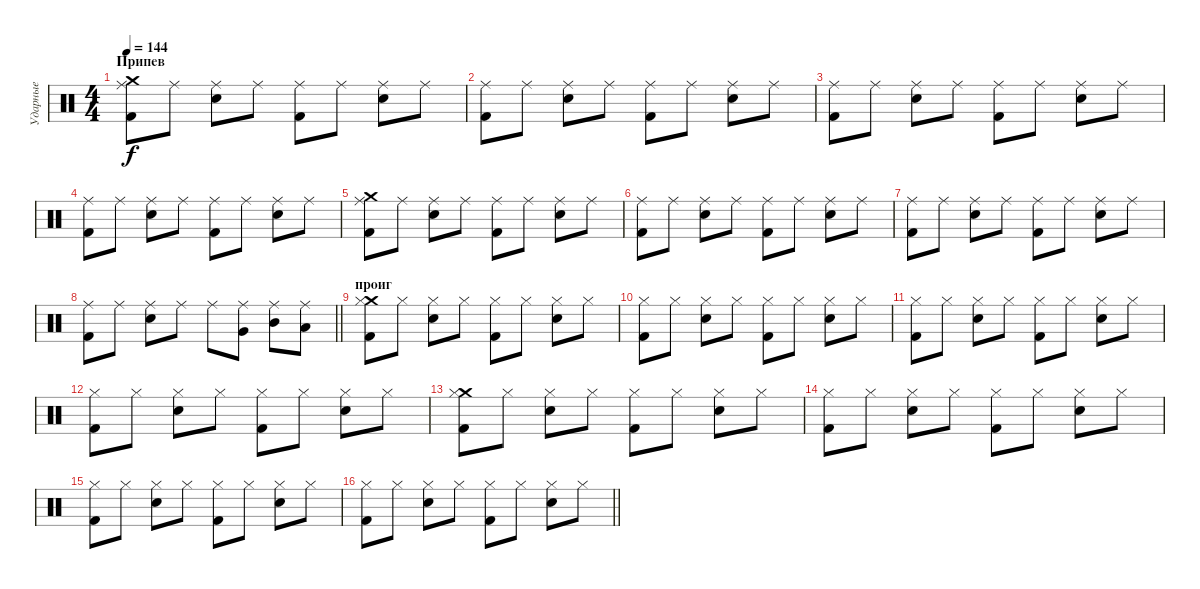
\track ("Ударные" "Ударные") {instrument percussion}
\staff {score}
\articulation defaults
\ts (4 4)
\section ("" "Припев")
\tempo 144
\clef neutral
\ks c
("Crash medium (hit)" "Ride (middle)" "Kick (hit) 2").8{dy f} "Ride (middle)".8 ("Ride (middle)" "Snare (hit) 2").8 "Ride (middle)".8 ("Ride (middle)" "Kick (hit) 2").8 "Ride (middle)".8 ("Ride (middle)" "Snare (hit) 2").8 "Ride (middle)".8 |
("Ride (middle)" "Kick (hit) 2").8 "Ride (middle)".8 ("Ride (middle)" "Snare (hit) 2").8 "Ride (middle)".8 ("Ride (middle)" "Kick (hit) 2").8 "Ride (middle)".8 ("Ride (middle)" "Snare (hit) 2").8 "Ride (middle)".8 |
("Ride (middle)" "Kick (hit) 2").8 "Ride (middle)".8 ("Ride (middle)" "Snare (hit) 2").8 "Ride (middle)".8 ("Ride (middle)" "Kick (hit) 2").8 "Ride (middle)".8 ("Ride (middle)" "Snare (hit) 2").8 "Ride (middle)".8 |
("Ride (middle)" "Kick (hit) 2").8 "Ride (middle)".8 ("Ride (middle)" "Snare (hit) 2").8 "Ride (middle)".8 ("Ride (middle)" "Kick (hit) 2").8 "Ride (middle)".8 ("Ride (middle)" "Snare (hit) 2").8 "Ride (middle)".8 |
("Crash medium (hit)" "Ride (middle)" "Kick (hit) 2").8 "Ride (middle)".8 ("Ride (middle)" "Snare (hit) 2").8 "Ride (middle)".8 ("Ride (middle)" "Kick (hit) 2").8 "Ride (middle)".8 ("Ride (middle)" "Snare (hit) 2").8 "Ride (middle)".8 |
("Ride (middle)" "Kick (hit) 2").8 "Ride (middle)".8 ("Ride (middle)" "Snare (hit) 2").8 "Ride (middle)".8 ("Ride (middle)" "Kick (hit) 2").8 "Ride (middle)".8 ("Ride (middle)" "Snare (hit) 2").8 "Ride (middle)".8 |
("Ride (middle)" "Kick (hit) 2").8 "Ride (middle)".8 ("Ride (middle)" "Snare (hit) 2").8 "Ride (middle)".8 ("Ride (middle)" "Kick (hit) 2").8 "Ride (middle)".8 ("Ride (middle)" "Snare (hit) 2").8 "Ride (middle)".8 |
\barLineRight lightlight
("Ride (middle)" "Kick (hit) 2").8 "Ride (middle)".8 ("Ride (middle)" "Snare (hit) 2").8 "Ride (middle)".8 "Ride (middle)".8 ("Very Low Tom (hit)" "Ride (middle)").8 ("Mid Tom (hit)" "Ride (middle)").8 ("Low Tom (hit)" "Ride (middle)").8 |
\section ("" "проиг")
("Crash medium (hit)" "Hi-Hat (closed)" "Kick (hit) 2").8 "Hi-Hat (closed)".8 ("Hi-Hat (closed)" "Snare (hit) 2").8 "Hi-Hat (closed)".8 ("Hi-Hat (closed)" "Kick (hit) 2").8 "Hi-Hat (closed)".8 ("Hi-Hat (closed)" "Snare (hit) 2").8 "Hi-Hat (closed)".8 |
("Hi-Hat (closed)" "Kick (hit) 2").8 "Hi-Hat (closed)".8 ("Hi-Hat (closed)" "Snare (hit) 2").8 "Hi-Hat (closed)".8 ("Hi-Hat (closed)" "Kick (hit) 2").8 "Hi-Hat (closed)".8 ("Hi-Hat (closed)" "Snare (hit) 2").8 "Hi-Hat (closed)".8 |
("Hi-Hat (closed)" "Kick (hit) 2").8 "Hi-Hat (closed)".8 ("Hi-Hat (closed)" "Snare (hit) 2").8 "Hi-Hat (closed)".8 ("Hi-Hat (closed)" "Kick (hit) 2").8 "Hi-Hat (closed)".8 ("Hi-Hat (closed)" "Snare (hit) 2").8 "Hi-Hat (closed)".8 |
("Hi-Hat (closed)" "Kick (hit) 2").8 "Hi-Hat (closed)".8 ("Hi-Hat (closed)" "Snare (hit) 2").8 "Hi-Hat (closed)".8 ("Hi-Hat (closed)" "Kick (hit) 2").8 "Hi-Hat (closed)".8 ("Hi-Hat (closed)" "Snare (hit) 2").8 "Hi-Hat (closed)".8 |
("Crash medium (hit)" "Hi-Hat (closed)" "Kick (hit) 2").8 "Hi-Hat (closed)".8 ("Hi-Hat (closed)" "Snare (hit) 2").8 "Hi-Hat (closed)".8 ("Hi-Hat (closed)" "Kick (hit) 2").8 "Hi-Hat (closed)".8 ("Hi-Hat (closed)" "Snare (hit) 2").8 "Hi-Hat (closed)".8 |
("Hi-Hat (closed)" "Kick (hit) 2").8 "Hi-Hat (closed)".8 ("Hi-Hat (closed)" "Snare (hit) 2").8 "Hi-Hat (closed)".8 ("Hi-Hat (closed)" "Kick (hit) 2").8 "Hi-Hat (closed)".8 ("Hi-Hat (closed)" "Snare (hit) 2").8 "Hi-Hat (closed)".8 |
("Hi-Hat (closed)" "Kick (hit) 2").8 "Hi-Hat (closed)".8 ("Hi-Hat (closed)" "Snare (hit) 2").8 "Hi-Hat (closed)".8 ("Hi-Hat (closed)" "Kick (hit) 2").8 "Hi-Hat (closed)".8 ("Hi-Hat (closed)" "Snare (hit) 2").8 "Hi-Hat (closed)".8 |
\barLineRight lightlight
("Hi-Hat (closed)" "Kick (hit) 2").8 "Hi-Hat (closed)".8 ("Hi-Hat (closed)" "Snare (hit) 2").8 "Hi-Hat (closed)".8 ("Hi-Hat (closed)" "Kick (hit) 2").8 "Hi-Hat (closed)".8 ("Hi-Hat (closed)" "Snare (hit) 2").8 "Hi-Hat (closed)".8
